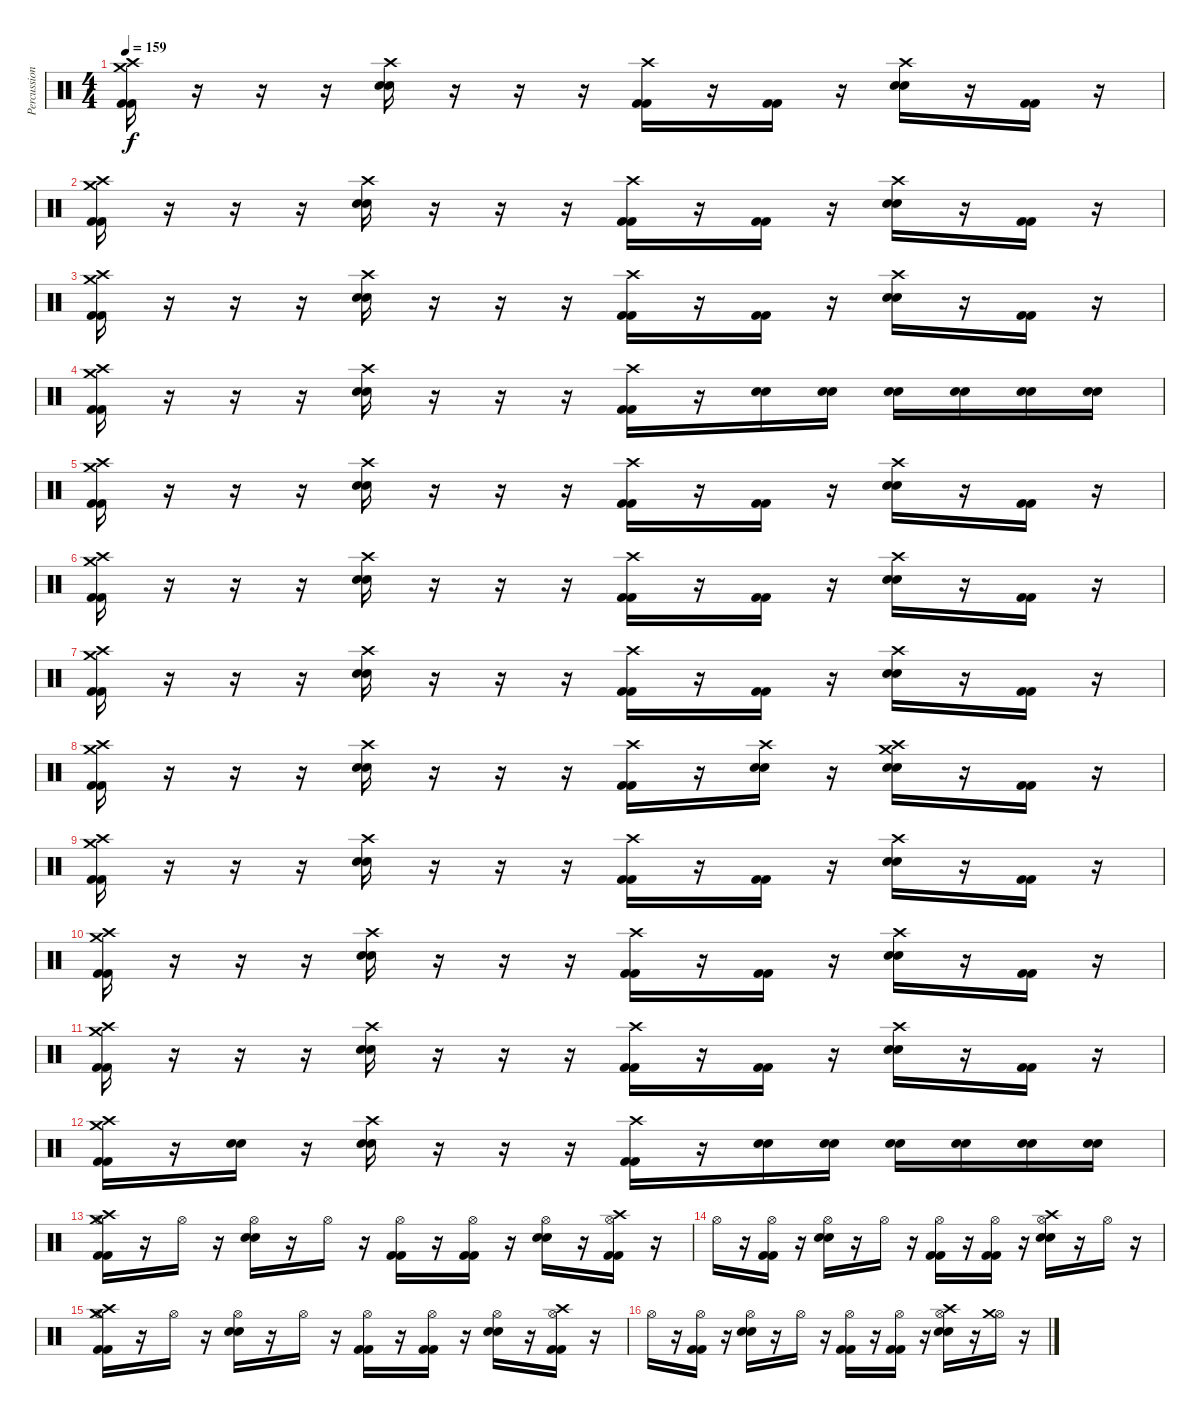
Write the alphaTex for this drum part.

\track ("Percussioni" "Percussion") {instrument percussion}
\staff {score}
\articulation defaults
\ts (4 4)
\tempo 159
\clef neutral
\ks c
("Crash high (hit)" "Crash medium (hit)" "Kick (hit) 2" "Kick (hit) 2").16{dy f} r.16 r.16 r.16 ("Crash high (hit)" "Snare (hit) 2" "Snare (hit) 2").16 r.16 r.16 r.16 ("Crash high (hit)" "Kick (hit) 2" "Kick (hit) 2").16 r.16 ("Kick (hit) 2" "Kick (hit) 2").16 r.16 ("Crash high (hit)" "Snare (hit) 2" "Snare (hit) 2").16 r.16 ("Kick (hit) 2" "Kick (hit) 2").16 r.16 |
("Crash high (hit)" "Crash medium (hit)" "Kick (hit) 2" "Kick (hit) 2").16 r.16 r.16 r.16 ("Crash high (hit)" "Snare (hit) 2" "Snare (hit) 2").16 r.16 r.16 r.16 ("Crash high (hit)" "Kick (hit) 2" "Kick (hit) 2").16 r.16 ("Kick (hit) 2" "Kick (hit) 2").16 r.16 ("Crash high (hit)" "Snare (hit) 2" "Snare (hit) 2").16 r.16 ("Kick (hit) 2" "Kick (hit) 2").16 r.16 |
("Crash high (hit)" "Crash medium (hit)" "Kick (hit) 2" "Kick (hit) 2").16 r.16 r.16 r.16 ("Crash high (hit)" "Snare (hit) 2" "Snare (hit) 2").16 r.16 r.16 r.16 ("Crash high (hit)" "Kick (hit) 2" "Kick (hit) 2").16 r.16 ("Kick (hit) 2" "Kick (hit) 2").16 r.16 ("Crash high (hit)" "Snare (hit) 2" "Snare (hit) 2").16 r.16 ("Kick (hit) 2" "Kick (hit) 2").16 r.16 |
("Crash high (hit)" "Crash medium (hit)" "Kick (hit) 2" "Kick (hit) 2").16 r.16 r.16 r.16 ("Crash high (hit)" "Snare (hit) 2" "Snare (hit) 2").16 r.16 r.16 r.16 ("Crash high (hit)" "Kick (hit) 2" "Kick (hit) 2").16 r.16 ("Snare (hit) 2" "Snare (hit) 2").16 ("Snare (hit) 2" "Snare (hit) 2").16 ("Snare (hit) 2" "Snare (hit) 2").16 ("Snare (hit) 2" "Snare (hit) 2").16 ("Snare (hit) 2" "Snare (hit) 2").16 ("Snare (hit) 2" "Snare (hit) 2").16 |
("Crash high (hit)" "Crash medium (hit)" "Kick (hit) 2" "Kick (hit) 2").16 r.16 r.16 r.16 ("Crash high (hit)" "Snare (hit) 2" "Snare (hit) 2").16 r.16 r.16 r.16 ("Crash high (hit)" "Kick (hit) 2" "Kick (hit) 2").16 r.16 ("Kick (hit) 2" "Kick (hit) 2").16 r.16 ("Crash high (hit)" "Snare (hit) 2" "Snare (hit) 2").16 r.16 ("Kick (hit) 2" "Kick (hit) 2").16 r.16 |
("Crash high (hit)" "Crash medium (hit)" "Kick (hit) 2" "Kick (hit) 2").16 r.16 r.16 r.16 ("Crash high (hit)" "Snare (hit) 2" "Snare (hit) 2").16 r.16 r.16 r.16 ("Crash high (hit)" "Kick (hit) 2" "Kick (hit) 2").16 r.16 ("Kick (hit) 2" "Kick (hit) 2").16 r.16 ("Crash high (hit)" "Snare (hit) 2" "Snare (hit) 2").16 r.16 ("Kick (hit) 2" "Kick (hit) 2").16 r.16 |
("Crash high (hit)" "Crash medium (hit)" "Kick (hit) 2" "Kick (hit) 2").16 r.16 r.16 r.16 ("Crash high (hit)" "Snare (hit) 2" "Snare (hit) 2").16 r.16 r.16 r.16 ("Crash high (hit)" "Kick (hit) 2" "Kick (hit) 2").16 r.16 ("Kick (hit) 2" "Kick (hit) 2").16 r.16 ("Crash high (hit)" "Snare (hit) 2" "Snare (hit) 2").16 r.16 ("Kick (hit) 2" "Kick (hit) 2").16 r.16 |
("Crash high (hit)" "Crash medium (hit)" "Kick (hit) 2" "Kick (hit) 2").16 r.16 r.16 r.16 ("Crash high (hit)" "Snare (hit) 2" "Snare (hit) 2").16 r.16 r.16 r.16 ("Crash high (hit)" "Kick (hit) 2" "Kick (hit) 2").16 r.16 ("Crash high (hit)" "Snare (hit) 2" "Snare (hit) 2").16 r.16 ("Crash high (hit)" "Crash medium (hit)" "Snare (hit) 2" "Snare (hit) 2").16 r.16 ("Kick (hit) 2" "Kick (hit) 2").16 r.16 |
("Crash high (hit)" "Crash medium (hit)" "Kick (hit) 2" "Kick (hit) 2").16 r.16 r.16 r.16 ("Crash high (hit)" "Snare (hit) 2" "Snare (hit) 2").16 r.16 r.16 r.16 ("Crash high (hit)" "Kick (hit) 2" "Kick (hit) 2").16 r.16 ("Kick (hit) 2" "Kick (hit) 2").16 r.16 ("Crash high (hit)" "Snare (hit) 2" "Snare (hit) 2").16 r.16 ("Kick (hit) 2" "Kick (hit) 2").16 r.16 |
("Crash high (hit)" "Crash medium (hit)" "Kick (hit) 2" "Kick (hit) 2").16 r.16 r.16 r.16 ("Crash high (hit)" "Snare (hit) 2" "Snare (hit) 2").16 r.16 r.16 r.16 ("Crash high (hit)" "Kick (hit) 2" "Kick (hit) 2").16 r.16 ("Kick (hit) 2" "Kick (hit) 2").16 r.16 ("Crash high (hit)" "Snare (hit) 2" "Snare (hit) 2").16 r.16 ("Kick (hit) 2" "Kick (hit) 2").16 r.16 |
("Crash high (hit)" "Crash medium (hit)" "Kick (hit) 2" "Kick (hit) 2").16 r.16 r.16 r.16 ("Crash high (hit)" "Snare (hit) 2" "Snare (hit) 2").16 r.16 r.16 r.16 ("Crash high (hit)" "Kick (hit) 2" "Kick (hit) 2").16 r.16 ("Kick (hit) 2" "Kick (hit) 2").16 r.16 ("Crash high (hit)" "Snare (hit) 2" "Snare (hit) 2").16 r.16 ("Kick (hit) 2" "Kick (hit) 2").16 r.16 |
("Crash high (hit)" "Crash medium (hit)" "Kick (hit) 2" "Kick (hit) 2").16 r.16 ("Snare (hit) 2" "Snare (hit) 2").16 r.16 ("Crash high (hit)" "Snare (hit) 2" "Snare (hit) 2").16 r.16 r.16 r.16 ("Crash high (hit)" "Kick (hit) 2" "Kick (hit) 2").16 r.16 ("Snare (hit) 2" "Snare (hit) 2").16 ("Snare (hit) 2" "Snare (hit) 2").16 ("Snare (hit) 2" "Snare (hit) 2").16 ("Snare (hit) 2" "Snare (hit) 2").16 ("Snare (hit) 2" "Snare (hit) 2").16 ("Snare (hit) 2" "Snare (hit) 2").16 |
("Hi-Hat (open)" "Crash high (hit)" "Crash medium (hit)" "Kick (hit) 2" "Kick (hit) 2").16 r.16 "Hi-Hat (open)".16 r.16 ("Hi-Hat (open)" "Snare (hit) 2" "Snare (hit) 2").16 r.16 "Hi-Hat (open)".16 r.16 ("Hi-Hat (open)" "Kick (hit) 2" "Kick (hit) 2").16 r.16 ("Hi-Hat (open)" "Kick (hit) 2" "Kick (hit) 2").16 r.16 ("Hi-Hat (open)" "Snare (hit) 2" "Snare (hit) 2").16 r.16 ("Hi-Hat (open)" "Crash high (hit)" "Kick (hit) 2" "Kick (hit) 2").16 r.16 |
"Hi-Hat (open)".16 r.16 ("Hi-Hat (open)" "Kick (hit) 2" "Kick (hit) 2").16 r.16 ("Hi-Hat (open)" "Snare (hit) 2" "Snare (hit) 2").16 r.16 "Hi-Hat (open)".16 r.16 ("Hi-Hat (open)" "Kick (hit) 2" "Kick (hit) 2").16 r.16 ("Hi-Hat (open)" "Kick (hit) 2" "Kick (hit) 2").16 r.16 ("Hi-Hat (open)" "Crash high (hit)" "Snare (hit) 2" "Snare (hit) 2").16 r.16 "Hi-Hat (open)".16 r.16 |
("Hi-Hat (open)" "Crash high (hit)" "Crash medium (hit)" "Kick (hit) 2" "Kick (hit) 2").16 r.16 "Hi-Hat (open)".16 r.16 ("Hi-Hat (open)" "Snare (hit) 2" "Snare (hit) 2").16 r.16 "Hi-Hat (open)".16 r.16 ("Hi-Hat (open)" "Kick (hit) 2" "Kick (hit) 2").16 r.16 ("Hi-Hat (open)" "Kick (hit) 2" "Kick (hit) 2").16 r.16 ("Hi-Hat (open)" "Snare (hit) 2" "Snare (hit) 2").16 r.16 ("Hi-Hat (open)" "Crash high (hit)" "Kick (hit) 2" "Kick (hit) 2").16 r.16 |
"Hi-Hat (open)".16 r.16 ("Hi-Hat (open)" "Kick (hit) 2" "Kick (hit) 2").16 r.16 ("Hi-Hat (open)" "Snare (hit) 2" "Snare (hit) 2").16 r.16 "Hi-Hat (open)".16 r.16 ("Hi-Hat (open)" "Kick (hit) 2" "Kick (hit) 2").16 r.16 ("Hi-Hat (open)" "Kick (hit) 2" "Kick (hit) 2").16 r.16 ("Hi-Hat (open)" "Crash high (hit)" "Snare (hit) 2" "Snare (hit) 2").16 r.16 ("Hi-Hat (open)" "Crash medium (hit)").16 r.16
